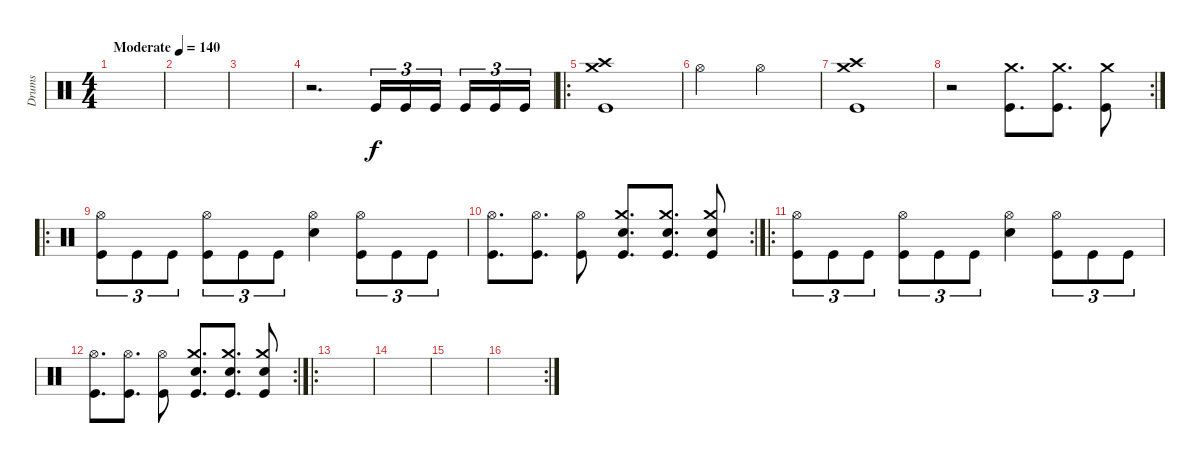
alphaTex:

\track ("Drums" "Drums") {instrument percussion}
\staff {score}
\articulation defaults
\ts (4 4)
\tempo (140 "Moderate")
\clef neutral
\ks c
|
|
|
r.2{d} "Kick (hit)".16{tu (3 2)} "Kick (hit)".16{tu (3 2)} "Kick (hit)".16{tu (3 2) beam splitsecondary} "Kick (hit)".16{tu (3 2)} "Kick (hit)".16{tu (3 2)} "Kick (hit)".16{tu (3 2)} |
\ro
("Crash medium (hit)" "Crash high (hit)" "Kick (hit)").1 |
"Hi-Hat (open)".2 "Hi-Hat (open)".2 |
("Crash medium (hit)" "Crash high (hit)" "Kick (hit)").1 |
\rc 2
r.2 ("Crash medium (hit)" "Kick (hit)").8{d} ("Crash medium (hit)" "Kick (hit)").8{d} ("Crash medium (hit)" "Kick (hit)").8 |
\ro
("Hi-Hat (open)" "Kick (hit)").8{tu (3 2)} "Kick (hit)".8{tu (3 2)} "Kick (hit)".8{tu (3 2)} ("Hi-Hat (open)" "Kick (hit)").8{tu (3 2)} "Kick (hit)".8{tu (3 2)} "Kick (hit)".8{tu (3 2)} ("Hi-Hat (open)" "Snare (hit) 2").4 ("Hi-Hat (open)" "Kick (hit)").8{tu (3 2)} "Kick (hit)".8{tu (3 2)} "Kick (hit)".8{tu (3 2)} |
\rc 2
("Hi-Hat (open)" "Kick (hit)").8{d} ("Hi-Hat (open)" "Kick (hit)").8{d} ("Hi-Hat (open)" "Kick (hit)").8 ("Crash medium (hit)" "Snare (hit) 2" "Kick (hit)").8{d} ("Crash medium (hit)" "Snare (hit) 2" "Kick (hit)").8{d} ("Crash medium (hit)" "Snare (hit) 2" "Kick (hit)").8 |
\ro
("Hi-Hat (open)" "Kick (hit)").8{tu (3 2)} "Kick (hit)".8{tu (3 2)} "Kick (hit)".8{tu (3 2)} ("Hi-Hat (open)" "Kick (hit)").8{tu (3 2)} "Kick (hit)".8{tu (3 2)} "Kick (hit)".8{tu (3 2)} ("Hi-Hat (open)" "Snare (hit) 2").4 ("Hi-Hat (open)" "Kick (hit)").8{tu (3 2)} "Kick (hit)".8{tu (3 2)} "Kick (hit)".8{tu (3 2)} |
\rc 2
("Hi-Hat (open)" "Kick (hit)").8{d} ("Hi-Hat (open)" "Kick (hit)").8{d} ("Hi-Hat (open)" "Kick (hit)").8 ("Crash medium (hit)" "Snare (hit) 2" "Kick (hit)").8{d} ("Crash medium (hit)" "Snare (hit) 2" "Kick (hit)").8{d} ("Crash medium (hit)" "Snare (hit) 2" "Kick (hit)").8 |
\ro
|
|
|
\rc 2
